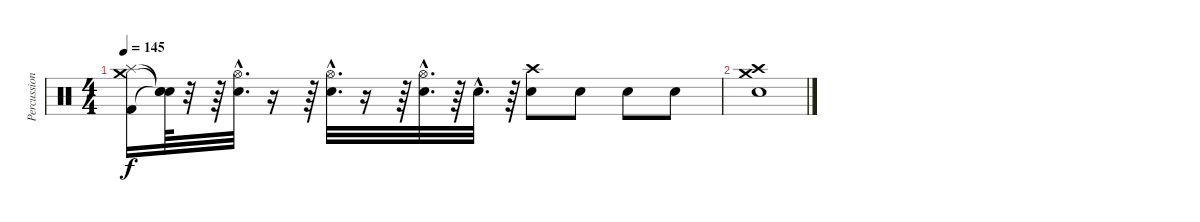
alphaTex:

\track ("Percussions" "Percussion") {instrument percussion}
\staff {score}
\articulation defaults
\ts (4 4)
\tempo 145
\clef neutral
\ks c
("Crash medium (hit)" "Splash (hit)" "Kick (hit) 2").16{dy f} ("Snare (hit)"{t} "Snare (hit)"{t} "Snare (hit)"{t}).64 r.32 r.64 ("Hi-Hat (open)"{hac} "Snare (hit) 2"{hac}).32{d} r.16 r.64 ("Hi-Hat (open)"{hac} "Electric Snare (hit)"{hac}).32{d} r.16 r.64 ("Hi-Hat (open)"{hac} "Electric Snare (hit)"{hac}).32{d} r.64 "Electric Snare (hit)"{hac}.32{d} r.64 ("Crash high (hit)" "Electric Snare (hit)").8 "Snare (hit) 2".8 "Electric Snare (hit)".8 "Snare (hit) 2".8 |
("Crash high (hit)" "Crash medium (hit)" "Snare (hit) 2").1
